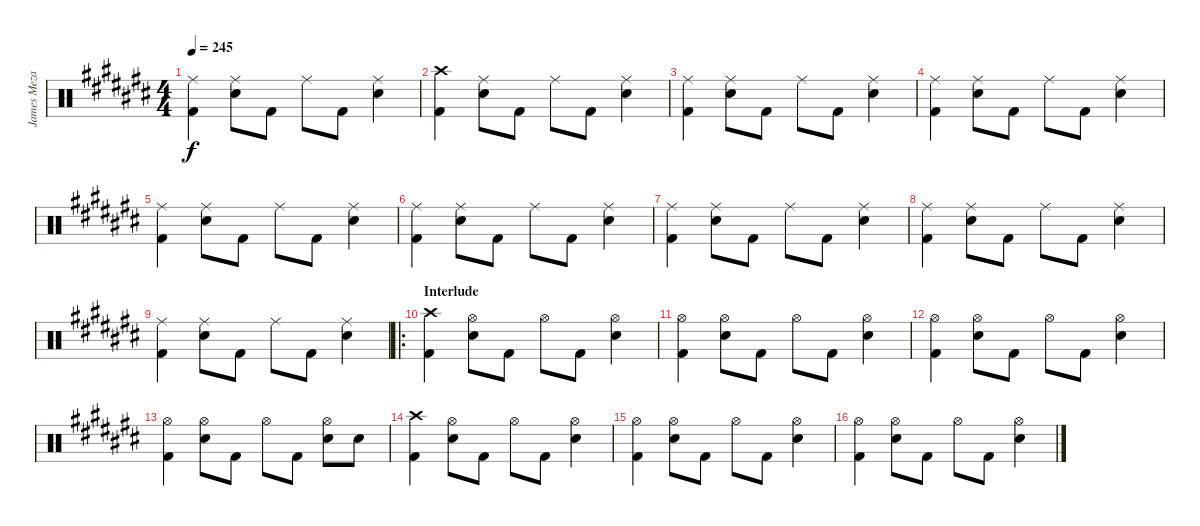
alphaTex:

\track ("James Meza" "James Meza") {instrument percussion}
\staff {score}
\articulation defaults
\ts (4 4)
\tempo 245
\clef neutral
\ks c#
("Ride (middle)" "Kick (hit) 2").4{dy f} ("Ride (middle)" "Snare (hit) 2").8 "Kick (hit) 2".8 "Ride (middle)".8 "Kick (hit) 2".8 ("Ride (middle)" "Snare (hit) 2").4 |
("Crash high (hit)" "Kick (hit) 2").4 ("Ride (middle)" "Snare (hit) 2").8 "Kick (hit) 2".8 "Ride (middle)".8 "Kick (hit) 2".8 ("Ride (middle)" "Snare (hit) 2").4 |
("Ride (middle)" "Kick (hit) 2").4 ("Ride (middle)" "Snare (hit) 2").8 "Kick (hit) 2".8 "Ride (middle)".8 "Kick (hit) 2".8 ("Ride (middle)" "Snare (hit) 2").4 |
("Ride (middle)" "Kick (hit) 2").4 ("Ride (middle)" "Snare (hit) 2").8 "Kick (hit) 2".8 "Ride (middle)".8 "Kick (hit) 2".8 ("Ride (middle)" "Snare (hit) 2").4 |
("Ride (middle)" "Kick (hit) 2").4 ("Ride (middle)" "Snare (hit) 2").8 "Kick (hit) 2".8 "Ride (middle)".8 "Kick (hit) 2".8 ("Ride (middle)" "Snare (hit) 2").4 |
("Ride (middle)" "Kick (hit) 2").4 ("Ride (middle)" "Snare (hit) 2").8 "Kick (hit) 2".8 "Ride (middle)".8 "Kick (hit) 2".8 ("Ride (middle)" "Snare (hit) 2").4 |
("Ride (middle)" "Kick (hit) 2").4 ("Ride (middle)" "Snare (hit) 2").8 "Kick (hit) 2".8 "Ride (middle)".8 "Kick (hit) 2".8 ("Ride (middle)" "Snare (hit) 2").4 |
("Ride (middle)" "Kick (hit) 2").4 ("Ride (middle)" "Snare (hit) 2").8 "Kick (hit) 2".8 "Ride (middle)".8 "Kick (hit) 2".8 ("Ride (middle)" "Snare (hit) 2").4 |
("Ride (middle)" "Kick (hit) 2").4 ("Ride (middle)" "Snare (hit) 2").8 "Kick (hit) 2".8 "Ride (middle)".8 "Kick (hit) 2".8 ("Ride (middle)" "Snare (hit) 2").4 |
\ro
\section ("" "Interlude")
("Crash high (hit)" "Kick (hit) 2").4 ("Hi-Hat (open)" "Snare (hit) 2").8 "Kick (hit) 2".8 "Hi-Hat (open)".8 "Kick (hit) 2".8 ("Hi-Hat (open)" "Snare (hit) 2").4 |
("Hi-Hat (open)" "Kick (hit) 2").4 ("Hi-Hat (open)" "Snare (hit) 2").8 "Kick (hit) 2".8 "Hi-Hat (open)".8 "Kick (hit) 2".8 ("Hi-Hat (open)" "Snare (hit) 2").4 |
("Hi-Hat (open)" "Kick (hit) 2").4 ("Hi-Hat (open)" "Snare (hit) 2").8 "Kick (hit) 2".8 "Hi-Hat (open)".8 "Kick (hit) 2".8 ("Hi-Hat (open)" "Snare (hit) 2").4 |
("Hi-Hat (open)" "Kick (hit) 2").4 ("Hi-Hat (open)" "Snare (hit) 2").8 "Kick (hit) 2".8 "Hi-Hat (open)".8 "Kick (hit) 2".8 ("Hi-Hat (open)" "Snare (hit) 2").8 "Snare (hit) 2".8 |
("Crash high (hit)" "Kick (hit) 2").4 ("Hi-Hat (open)" "Snare (hit) 2").8 "Kick (hit) 2".8 "Hi-Hat (open)".8 "Kick (hit) 2".8 ("Hi-Hat (open)" "Snare (hit) 2").4 |
("Hi-Hat (open)" "Kick (hit) 2").4 ("Hi-Hat (open)" "Snare (hit) 2").8 "Kick (hit) 2".8 "Hi-Hat (open)".8 "Kick (hit) 2".8 ("Hi-Hat (open)" "Snare (hit) 2").4 |
("Hi-Hat (open)" "Kick (hit) 2").4 ("Hi-Hat (open)" "Snare (hit) 2").8 "Kick (hit) 2".8 "Hi-Hat (open)".8 "Kick (hit) 2".8 ("Hi-Hat (open)" "Snare (hit) 2").4
